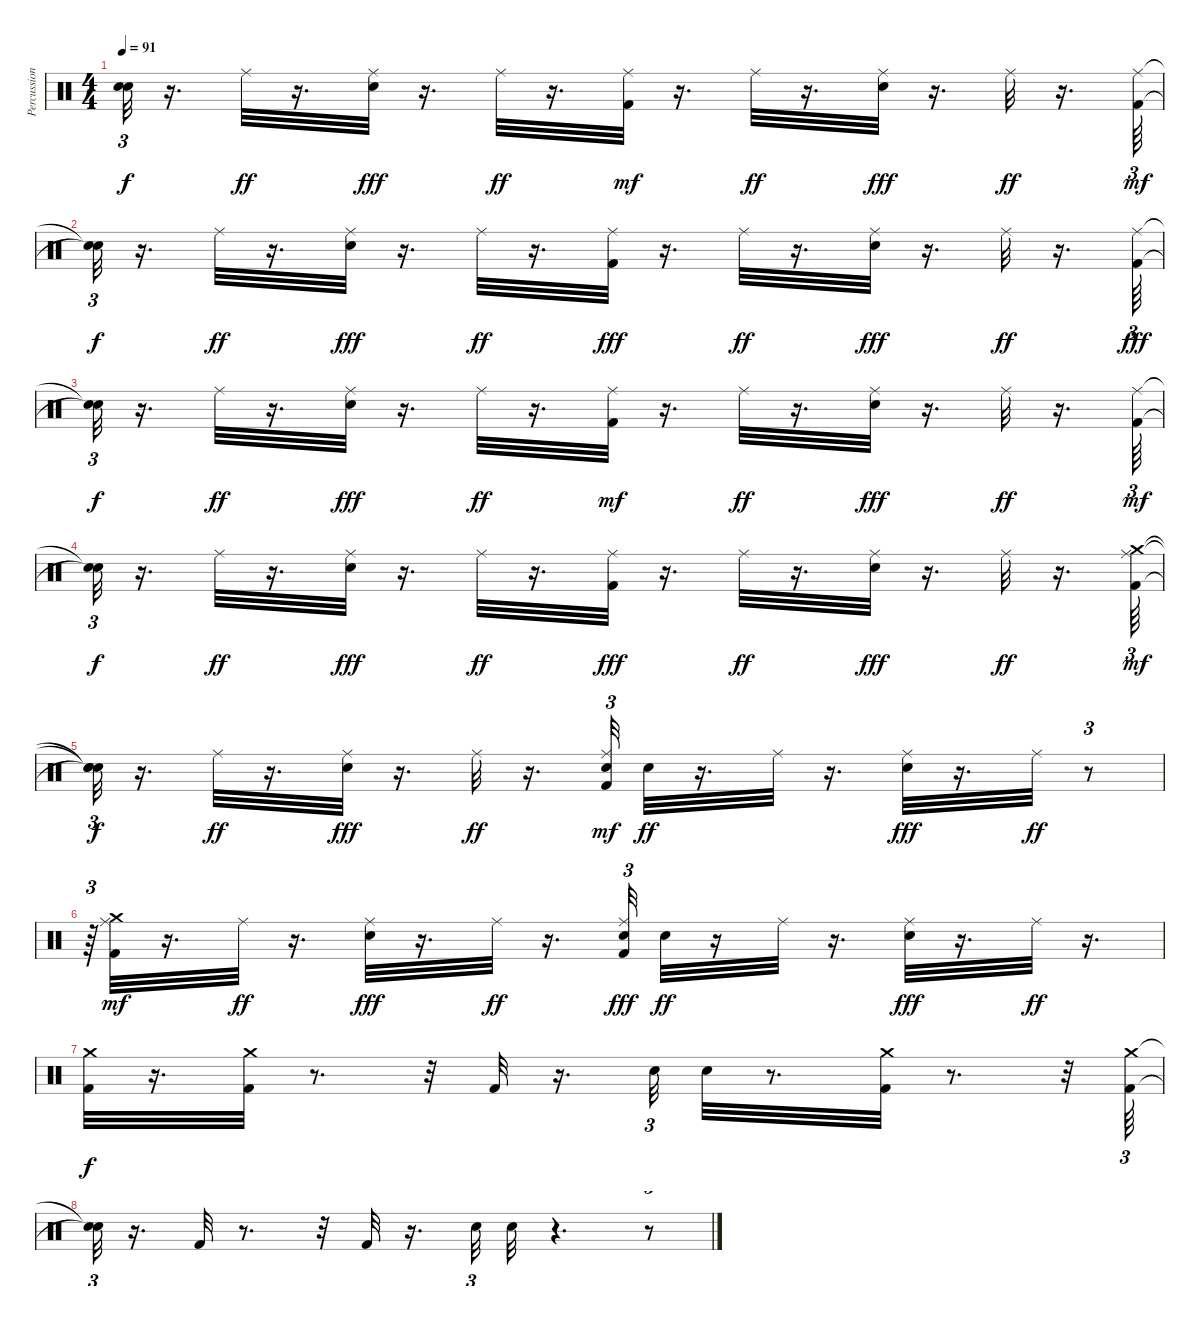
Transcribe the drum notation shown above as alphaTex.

\track ("Percussion" "Percussion") {instrument percussion}
\staff {score}
\articulation defaults
\ts (4 4)
\tempo 91
\clef neutral
\ks c
("Snare (hit)"{t} "Snare (hit)"{t}).32{tu (3 2) dy f} r.16{d} "Ride (middle)".32{dy ff} r.16{d} ("Snare (hit) 2" "Ride (middle)").32{dy fff} r.16{d} "Ride (middle)".32{dy ff} r.16{d} ("Ride (middle)" "Kick (hit) 2").32{dy mf} r.16{d} "Ride (middle)".32{dy ff} r.16{d} ("Snare (hit) 2" "Ride (middle)").32{dy fff} r.16{d} "Ride (middle)".32{dy ff} r.16{d} ("Ride (middle)" "Kick (hit) 2").64{tu (3 2) dy mf} |
("Snare (hit)"{t} "Snare (hit)"{t}).32{tu (3 2) dy f} r.16{d} "Ride (middle)".32{dy ff} r.16{d} ("Snare (hit) 2" "Ride (middle)").32{dy fff} r.16{d} "Ride (middle)".32{dy ff} r.16{d} ("Kick (hit) 2" "Ride (middle)").32{dy fff} r.16{d} "Ride (middle)".32{dy ff} r.16{d} ("Snare (hit) 2" "Ride (middle)").32{dy fff} r.16{d} "Ride (middle)".32{dy ff} r.16{d} ("Kick (hit) 2" "Ride (middle)").64{tu (3 2) dy fff} |
("Snare (hit)"{t} "Snare (hit)"{t}).32{tu (3 2) dy f} r.16{d} "Ride (middle)".32{dy ff} r.16{d} ("Snare (hit) 2" "Ride (middle)").32{dy fff} r.16{d} "Ride (middle)".32{dy ff} r.16{d} ("Ride (middle)" "Kick (hit) 2").32{dy mf} r.16{d} "Ride (middle)".32{dy ff} r.16{d} ("Snare (hit) 2" "Ride (middle)").32{dy fff} r.16{d} "Ride (middle)".32{dy ff} r.16{d} ("Ride (middle)" "Kick (hit) 2").64{tu (3 2) dy mf} |
("Snare (hit)"{t} "Snare (hit)"{t}).32{tu (3 2) dy f} r.16{d} "Ride (middle)".32{dy ff} r.16{d} ("Snare (hit) 2" "Ride (middle)").32{dy fff} r.16{d} "Ride (middle)".32{dy ff} r.16{d} ("Kick (hit) 2" "Ride (middle)").32{dy fff} r.16{d} "Ride (middle)".32{dy ff} r.16{d} ("Snare (hit) 2" "Ride (middle)").32{dy fff} r.16{d} "Ride (middle)".32{dy ff} r.16{d} ("Crash medium (hit)" "Ride (middle)" "Kick (hit) 2").64{tu (3 2) dy mf} |
("Snare (hit)"{t} "Snare (hit)"{t} "Snare (hit)"{t}).32{tu (3 2) dy f} r.16{d} "Ride (middle)".32{dy ff} r.16{d} ("Snare (hit) 2" "Ride (middle)").32{dy fff} r.16{d} "Ride (middle)".32{dy ff} r.16{d} ("Snare (hit) 2" "Ride (middle)" "Kick (hit) 2").32{tu (3 2) dy mf} "Snare (hit) 2".32{dy ff} r.16{d} "Ride (middle)".32 r.16{d} ("Snare (hit) 2" "Ride (middle)").32{dy fff} r.16{d} "Ride (middle)".32{dy ff} r.8{tu (3 2)} |
r.64{tu (3 2)} ("Crash medium (hit)" "Ride (middle)" "Kick (hit) 2").32{dy mf} r.16{d} "Ride (middle)".32{dy ff} r.16{d} ("Snare (hit) 2" "Ride (middle)").32{dy fff} r.16{d} "Ride (middle)".32{dy ff} r.16{d} ("Snare (hit) 2" "Kick (hit) 2" "Ride (middle)").32{tu (3 2) dy fff} "Snare (hit) 2".32{dy ff} r.16 "Ride (middle)".32 r.16{d} ("Snare (hit) 2" "Ride (middle)").32{dy fff} r.16{d} "Ride (middle)".32{dy ff} r.16{d} |
("Kick (hit) 2" "Crash medium (hit)").32{dy f} r.16{d} ("Kick (hit) 2" "Crash medium (hit)").32 r.8{d} r.32 "Kick (hit) 2".32 r.16{d} "Snare (hit) 2".32{tu (3 2)} "Snare (hit) 2".32 r.8{d} ("Kick (hit) 2" "Crash medium (hit)").32 r.8{d} r.32 ("Kick (hit) 2" "Crash medium (hit)").64{tu (3 2)} |
("Snare (hit)"{t} "Snare (hit)"{t}).32{tu (3 2)} r.16{d} "Kick (hit) 2".32 r.8{d} r.32 "Kick (hit) 2".32 r.16{d} "Snare (hit) 2".32{tu (3 2)} "Snare (hit) 2".32 r.4{d} r.8{tu (3 2)}
